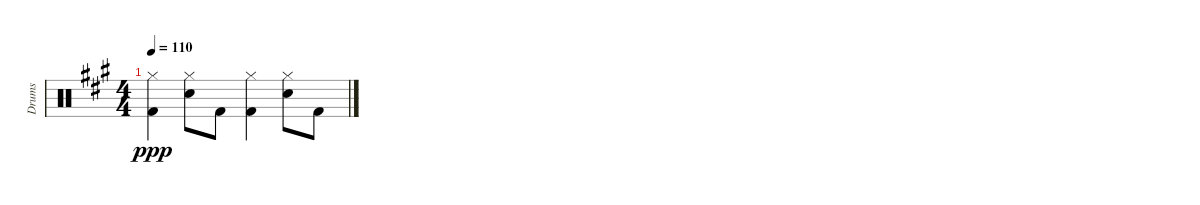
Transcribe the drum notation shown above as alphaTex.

\track ("Drums" "Drums") {instrument percussion}
\staff {score}
\articulation defaults
\ts (4 4)
\tempo 110
\clef neutral
\ks a
("Hi-Hat (closed)" "Kick (hit) 2").4{dy ppp} ("Hi-Hat (closed)" "Snare (hit) 2").8 "Kick (hit) 2".8 ("Hi-Hat (closed)" "Kick (hit) 2").4 ("Hi-Hat (closed)" "Snare (hit) 2").8 "Kick (hit) 2".8
